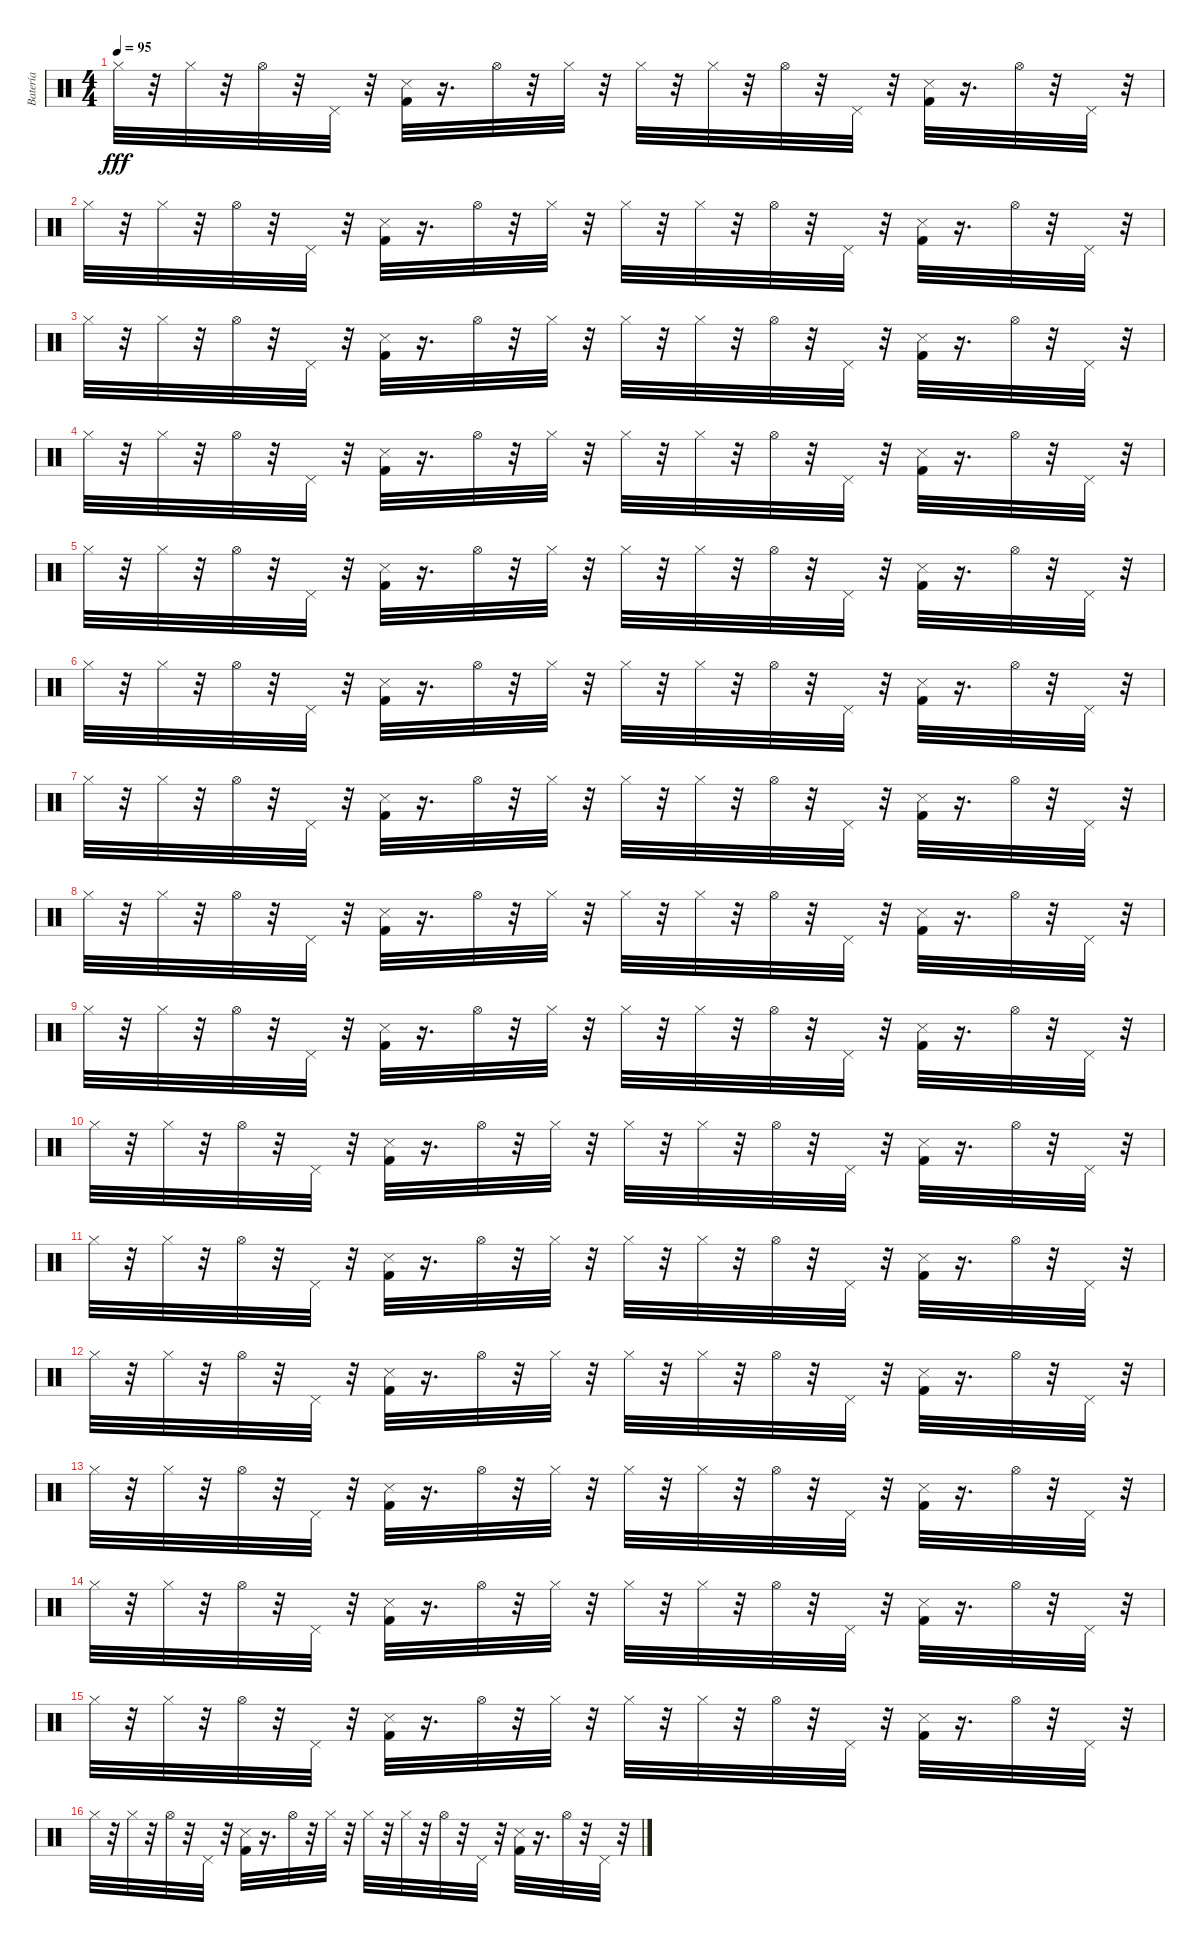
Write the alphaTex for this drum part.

\track ("Batería" "Batería") {instrument percussion}
\staff {score}
\articulation defaults
\ts (4 4)
\tempo 95
\clef neutral
\ks c "Hi-Hat (closed)".32{dy fff}
r.32 "Hi-Hat (closed)".32 r.32 "Hi-Hat (open)".32 r.32 "Pedal Hi-Hat (hit)".32 r.32 ("Kick (hit) 2" "Snare (side stick) 3").32 r.16{d} "Hi-Hat (open)".32 r.32 "Hi-Hat (closed)".32 r.32 "Hi-Hat (closed)".32 r.32 "Hi-Hat (closed)".32 r.32 "Hi-Hat (open)".32 r.32 "Pedal Hi-Hat (hit)".32 r.32 ("Kick (hit) 2" "Snare (side stick) 3").32 r.16{d} "Hi-Hat (open)".32 r.32 "Pedal Hi-Hat (hit)".32 r.32 |
"Hi-Hat (closed)".32 r.32 "Hi-Hat (closed)".32 r.32 "Hi-Hat (open)".32 r.32 "Pedal Hi-Hat (hit)".32 r.32 ("Kick (hit) 2" "Snare (side stick) 3").32 r.16{d} "Hi-Hat (open)".32 r.32 "Hi-Hat (closed)".32 r.32 "Hi-Hat (closed)".32 r.32 "Hi-Hat (closed)".32 r.32 "Hi-Hat (open)".32 r.32 "Pedal Hi-Hat (hit)".32 r.32 ("Kick (hit) 2" "Snare (side stick) 3").32 r.16{d} "Hi-Hat (open)".32 r.32 "Pedal Hi-Hat (hit)".32 r.32 |
"Hi-Hat (closed)".32 r.32 "Hi-Hat (closed)".32 r.32 "Hi-Hat (open)".32 r.32 "Pedal Hi-Hat (hit)".32 r.32 ("Kick (hit) 2" "Snare (side stick) 3").32 r.16{d} "Hi-Hat (open)".32 r.32 "Hi-Hat (closed)".32 r.32 "Hi-Hat (closed)".32 r.32 "Hi-Hat (closed)".32 r.32 "Hi-Hat (open)".32 r.32 "Pedal Hi-Hat (hit)".32 r.32 ("Kick (hit) 2" "Snare (side stick) 3").32 r.16{d} "Hi-Hat (open)".32 r.32 "Pedal Hi-Hat (hit)".32 r.32 |
"Hi-Hat (closed)".32 r.32 "Hi-Hat (closed)".32 r.32 "Hi-Hat (open)".32 r.32 "Pedal Hi-Hat (hit)".32 r.32 ("Kick (hit) 2" "Snare (side stick) 3").32 r.16{d} "Hi-Hat (open)".32 r.32 "Hi-Hat (closed)".32 r.32 "Hi-Hat (closed)".32 r.32 "Hi-Hat (closed)".32 r.32 "Hi-Hat (open)".32 r.32 "Pedal Hi-Hat (hit)".32 r.32 ("Kick (hit) 2" "Snare (side stick) 3").32 r.16{d} "Hi-Hat (open)".32 r.32 "Pedal Hi-Hat (hit)".32 r.32 |
"Hi-Hat (closed)".32 r.32 "Hi-Hat (closed)".32 r.32 "Hi-Hat (open)".32 r.32 "Pedal Hi-Hat (hit)".32 r.32 ("Kick (hit) 2" "Snare (side stick) 3").32 r.16{d} "Hi-Hat (open)".32 r.32 "Hi-Hat (closed)".32 r.32 "Hi-Hat (closed)".32 r.32 "Hi-Hat (closed)".32 r.32 "Hi-Hat (open)".32 r.32 "Pedal Hi-Hat (hit)".32 r.32 ("Kick (hit) 2" "Snare (side stick) 3").32 r.16{d} "Hi-Hat (open)".32 r.32 "Pedal Hi-Hat (hit)".32 r.32 |
"Hi-Hat (closed)".32 r.32 "Hi-Hat (closed)".32 r.32 "Hi-Hat (open)".32 r.32 "Pedal Hi-Hat (hit)".32 r.32 ("Kick (hit) 2" "Snare (side stick) 3").32 r.16{d} "Hi-Hat (open)".32 r.32 "Hi-Hat (closed)".32 r.32 "Hi-Hat (closed)".32 r.32 "Hi-Hat (closed)".32 r.32 "Hi-Hat (open)".32 r.32 "Pedal Hi-Hat (hit)".32 r.32 ("Kick (hit) 2" "Snare (side stick) 3").32 r.16{d} "Hi-Hat (open)".32 r.32 "Pedal Hi-Hat (hit)".32 r.32 |
"Hi-Hat (closed)".32 r.32 "Hi-Hat (closed)".32 r.32 "Hi-Hat (open)".32 r.32 "Pedal Hi-Hat (hit)".32 r.32 ("Kick (hit) 2" "Snare (side stick) 3").32 r.16{d} "Hi-Hat (open)".32 r.32 "Hi-Hat (closed)".32 r.32 "Hi-Hat (closed)".32 r.32 "Hi-Hat (closed)".32 r.32 "Hi-Hat (open)".32 r.32 "Pedal Hi-Hat (hit)".32 r.32 ("Kick (hit) 2" "Snare (side stick) 3").32 r.16{d} "Hi-Hat (open)".32 r.32 "Pedal Hi-Hat (hit)".32 r.32 |
"Hi-Hat (closed)".32 r.32 "Hi-Hat (closed)".32 r.32 "Hi-Hat (open)".32 r.32 "Pedal Hi-Hat (hit)".32 r.32 ("Kick (hit) 2" "Snare (side stick) 3").32 r.16{d} "Hi-Hat (open)".32 r.32 "Hi-Hat (closed)".32 r.32 "Hi-Hat (closed)".32 r.32 "Hi-Hat (closed)".32 r.32 "Hi-Hat (open)".32 r.32 "Pedal Hi-Hat (hit)".32 r.32 ("Kick (hit) 2" "Snare (side stick) 3").32 r.16{d} "Hi-Hat (open)".32 r.32 "Pedal Hi-Hat (hit)".32 r.32 |
"Hi-Hat (closed)".32 r.32 "Hi-Hat (closed)".32 r.32 "Hi-Hat (open)".32 r.32 "Pedal Hi-Hat (hit)".32 r.32 ("Kick (hit) 2" "Snare (side stick) 3").32 r.16{d} "Hi-Hat (open)".32 r.32 "Hi-Hat (closed)".32 r.32 "Hi-Hat (closed)".32 r.32 "Hi-Hat (closed)".32 r.32 "Hi-Hat (open)".32 r.32 "Pedal Hi-Hat (hit)".32 r.32 ("Kick (hit) 2" "Snare (side stick) 3").32 r.16{d} "Hi-Hat (open)".32 r.32 "Pedal Hi-Hat (hit)".32 r.32 |
"Hi-Hat (closed)".32 r.32 "Hi-Hat (closed)".32 r.32 "Hi-Hat (open)".32 r.32 "Pedal Hi-Hat (hit)".32 r.32 ("Kick (hit) 2" "Snare (side stick) 3").32 r.16{d} "Hi-Hat (open)".32 r.32 "Hi-Hat (closed)".32 r.32 "Hi-Hat (closed)".32 r.32 "Hi-Hat (closed)".32 r.32 "Hi-Hat (open)".32 r.32 "Pedal Hi-Hat (hit)".32 r.32 ("Kick (hit) 2" "Snare (side stick) 3").32 r.16{d} "Hi-Hat (open)".32 r.32 "Pedal Hi-Hat (hit)".32 r.32 |
"Hi-Hat (closed)".32 r.32 "Hi-Hat (closed)".32 r.32 "Hi-Hat (open)".32 r.32 "Pedal Hi-Hat (hit)".32 r.32 ("Kick (hit) 2" "Snare (side stick) 3").32 r.16{d} "Hi-Hat (open)".32 r.32 "Hi-Hat (closed)".32 r.32 "Hi-Hat (closed)".32 r.32 "Hi-Hat (closed)".32 r.32 "Hi-Hat (open)".32 r.32 "Pedal Hi-Hat (hit)".32 r.32 ("Kick (hit) 2" "Snare (side stick) 3").32 r.16{d} "Hi-Hat (open)".32 r.32 "Pedal Hi-Hat (hit)".32 r.32 |
"Hi-Hat (closed)".32 r.32 "Hi-Hat (closed)".32 r.32 "Hi-Hat (open)".32 r.32 "Pedal Hi-Hat (hit)".32 r.32 ("Kick (hit) 2" "Snare (side stick) 3").32 r.16{d} "Hi-Hat (open)".32 r.32 "Hi-Hat (closed)".32 r.32 "Hi-Hat (closed)".32 r.32 "Hi-Hat (closed)".32 r.32 "Hi-Hat (open)".32 r.32 "Pedal Hi-Hat (hit)".32 r.32 ("Kick (hit) 2" "Snare (side stick) 3").32 r.16{d} "Hi-Hat (open)".32 r.32 "Pedal Hi-Hat (hit)".32 r.32 |
"Hi-Hat (closed)".32 r.32 "Hi-Hat (closed)".32 r.32 "Hi-Hat (open)".32 r.32 "Pedal Hi-Hat (hit)".32 r.32 ("Kick (hit) 2" "Snare (side stick) 3").32 r.16{d} "Hi-Hat (open)".32 r.32 "Hi-Hat (closed)".32 r.32 "Hi-Hat (closed)".32 r.32 "Hi-Hat (closed)".32 r.32 "Hi-Hat (open)".32 r.32 "Pedal Hi-Hat (hit)".32 r.32 ("Kick (hit) 2" "Snare (side stick) 3").32 r.16{d} "Hi-Hat (open)".32 r.32 "Pedal Hi-Hat (hit)".32 r.32 |
"Hi-Hat (closed)".32 r.32 "Hi-Hat (closed)".32 r.32 "Hi-Hat (open)".32 r.32 "Pedal Hi-Hat (hit)".32 r.32 ("Kick (hit) 2" "Snare (side stick) 3").32 r.16{d} "Hi-Hat (open)".32 r.32 "Hi-Hat (closed)".32 r.32 "Hi-Hat (closed)".32 r.32 "Hi-Hat (closed)".32 r.32 "Hi-Hat (open)".32 r.32 "Pedal Hi-Hat (hit)".32 r.32 ("Kick (hit) 2" "Snare (side stick) 3").32 r.16{d} "Hi-Hat (open)".32 r.32 "Pedal Hi-Hat (hit)".32 r.32 |
"Hi-Hat (closed)".32 r.32 "Hi-Hat (closed)".32 r.32 "Hi-Hat (open)".32 r.32 "Pedal Hi-Hat (hit)".32 r.32 ("Kick (hit) 2" "Snare (side stick) 3").32 r.16{d} "Hi-Hat (open)".32 r.32 "Hi-Hat (closed)".32 r.32 "Hi-Hat (closed)".32 r.32 "Hi-Hat (closed)".32 r.32 "Hi-Hat (open)".32 r.32 "Pedal Hi-Hat (hit)".32 r.32 ("Kick (hit) 2" "Snare (side stick) 3").32 r.16{d} "Hi-Hat (open)".32 r.32 "Pedal Hi-Hat (hit)".32 r.32 |
"Hi-Hat (closed)".32 r.32 "Hi-Hat (closed)".32 r.32 "Hi-Hat (open)".32 r.32 "Pedal Hi-Hat (hit)".32 r.32 ("Kick (hit) 2" "Snare (side stick) 3").32 r.16{d} "Hi-Hat (open)".32 r.32 "Hi-Hat (closed)".32 r.32 "Hi-Hat (closed)".32 r.32 "Hi-Hat (closed)".32 r.32 "Hi-Hat (open)".32 r.32 "Pedal Hi-Hat (hit)".32 r.32 ("Kick (hit) 2" "Snare (side stick) 3").32 r.16{d} "Hi-Hat (open)".32 r.32 "Pedal Hi-Hat (hit)".32 r.32
